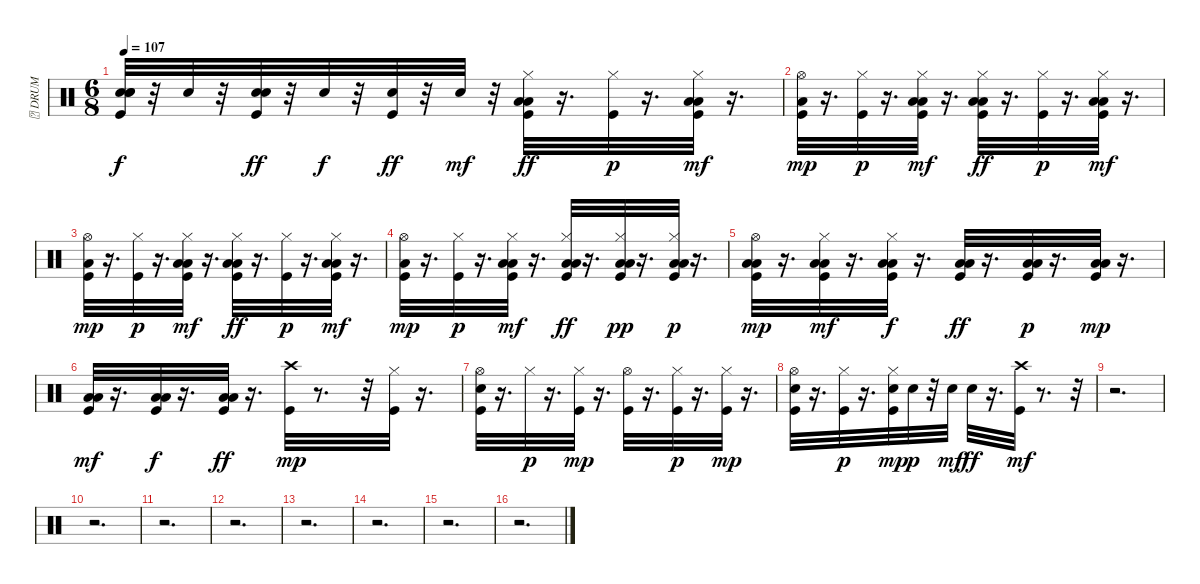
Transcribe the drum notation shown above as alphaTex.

\track ("\t DRUM" "\t DRUM") {instrument percussion}
\staff {score}
\articulation defaults
\ts (6 8)
\tempo 107
\clef neutral
\ks c
("Kick (hit)" "Hand Clap (hit)" "Electric Snare (hit)" "Hand Clap (hit)").32{dy f} r.32 "Electric Snare (hit)".32 r.32 ("Kick (hit)" "Hand Clap (hit)" "Electric Snare (hit)").32{dy ff} r.32 "Electric Snare (hit)".32{dy f} r.32 ("Kick (hit)" "Electric Snare (hit)").32{dy ff} r.32 "Electric Snare (hit)".32{dy mf} r.32 ("Kick (hit)" "Low Floor Tom (hit)" "Hi-Hat (closed)" "Low Tom (hit)").32{dy ff} r.16{d} ("Kick (hit)" "Hi-Hat (closed)").32{dy p} r.16{d} ("Kick (hit)" "Low Floor Tom (hit)" "Hi-Hat (closed)" "Low Tom (hit)").32{dy mf} r.16{d} |
("Kick (hit)" "Low Floor Tom (hit)" "Hi-Hat (open)").32{dy mp} r.16{d} ("Kick (hit)" "Hi-Hat (closed)").32{dy p} r.16{d} ("Kick (hit)" "Low Floor Tom (hit)" "Hi-Hat (closed)" "Low Tom (hit)").32{dy mf} r.16{d} ("Kick (hit)" "Low Floor Tom (hit)" "Hi-Hat (closed)" "Low Tom (hit)").32{dy ff} r.16{d} ("Kick (hit)" "Hi-Hat (closed)").32{dy p} r.16{d} ("Kick (hit)" "Low Floor Tom (hit)" "Hi-Hat (closed)" "Low Tom (hit)").32{dy mf} r.16{d} |
("Kick (hit)" "Low Floor Tom (hit)" "Hi-Hat (open)").32{dy mp} r.16{d} ("Kick (hit)" "Hi-Hat (closed)").32{dy p} r.16{d} ("Kick (hit)" "Low Floor Tom (hit)" "Hi-Hat (closed)" "Low Tom (hit)").32{dy mf} r.16{d} ("Kick (hit)" "Low Floor Tom (hit)" "Hi-Hat (closed)" "Low Tom (hit)").32{dy ff} r.16{d} ("Kick (hit)" "Hi-Hat (closed)").32{dy p} r.16{d} ("Kick (hit)" "Low Floor Tom (hit)" "Hi-Hat (closed)" "Low Tom (hit)").32{dy mf} r.16{d} |
("Kick (hit)" "Low Floor Tom (hit)" "Hi-Hat (open)").32{dy mp} r.16{d} ("Kick (hit)" "Hi-Hat (closed)").32{dy p} r.16{d} ("Kick (hit)" "Low Floor Tom (hit)" "Hi-Hat (closed)" "Low Tom (hit)").32{dy mf} r.16{d} ("Kick (hit)" "Low Floor Tom (hit)" "Hi-Hat (closed)" "Low Tom (hit)").32{dy ff} r.16{d} ("Kick (hit)" "Low Floor Tom (hit)" "Hi-Hat (closed)" "Low Tom (hit)").32{dy pp} r.16{d} ("Kick (hit)" "Low Floor Tom (hit)" "Hi-Hat (closed)" "Low Tom (hit)").32{dy p} r.16{d} |
("Kick (hit)" "Low Floor Tom (hit)" "Low Tom (hit)" "Hi-Hat (open)").32{dy mp} r.16{d} ("Kick (hit)" "Low Floor Tom (hit)" "Hi-Hat (closed)" "Low Tom (hit)").32{dy mf} r.16{d} ("Kick (hit)" "Low Floor Tom (hit)" "Hi-Hat (closed)" "Low Tom (hit)").32{dy f} r.16{d} ("Kick (hit)" "Low Floor Tom (hit)" "Low Tom (hit)").32{dy ff} r.16{d} ("Kick (hit)" "Low Floor Tom (hit)" "Low Tom (hit)").32{dy p} r.16{d} ("Kick (hit)" "Low Floor Tom (hit)" "Low Tom (hit)").32{dy mp} r.16{d} |
("Kick (hit)" "Low Floor Tom (hit)" "Low Tom (hit)").32{dy mf} r.16{d} ("Kick (hit)" "Low Floor Tom (hit)" "Low Tom (hit)").32{dy f} r.16{d} ("Kick (hit)" "Low Floor Tom (hit)" "Low Tom (hit)").32{dy ff} r.16{d} ("Kick (hit)" "Crash high (hit)").32{dy mp} r.8{d} r.32 ("Kick (hit)" "Hi-Hat (closed)").32 r.16{d} |
("Kick (hit)" "Electric Snare (hit)" "Hi-Hat (open)").32 r.16{d} "Hi-Hat (closed)".32{dy p} r.16{d} ("Kick (hit)" "Hi-Hat (closed)").32{dy mp} r.16{d} ("Kick (hit)" "Hi-Hat (open)").32 r.16{d} ("Kick (hit)" "Hi-Hat (closed)").32{dy p} r.16{d} ("Kick (hit)" "Hi-Hat (closed)").32{dy mp} r.16{d} |
("Kick (hit)" "Electric Snare (hit)" "Hi-Hat (open)").32 r.16{d} ("Kick (hit)" "Hi-Hat (closed)").32{dy p} r.16{d} ("Kick (hit)" "Electric Snare (hit)" "Hi-Hat (closed)").32{dy mp} "Electric Snare (hit)".32{dy p} r.32 "Electric Snare (hit)".32{dy mf} "Electric Snare (hit)".32{dy ff} r.16{d} ("Kick (hit)" "Crash high (hit)").32{dy mf} r.8{d} r.32 |
r.2{d} |
r.2{d} |
r.2{d} |
r.2{d} |
r.2{d} |
r.2{d} |
r.2{d} |
r.2{d}
